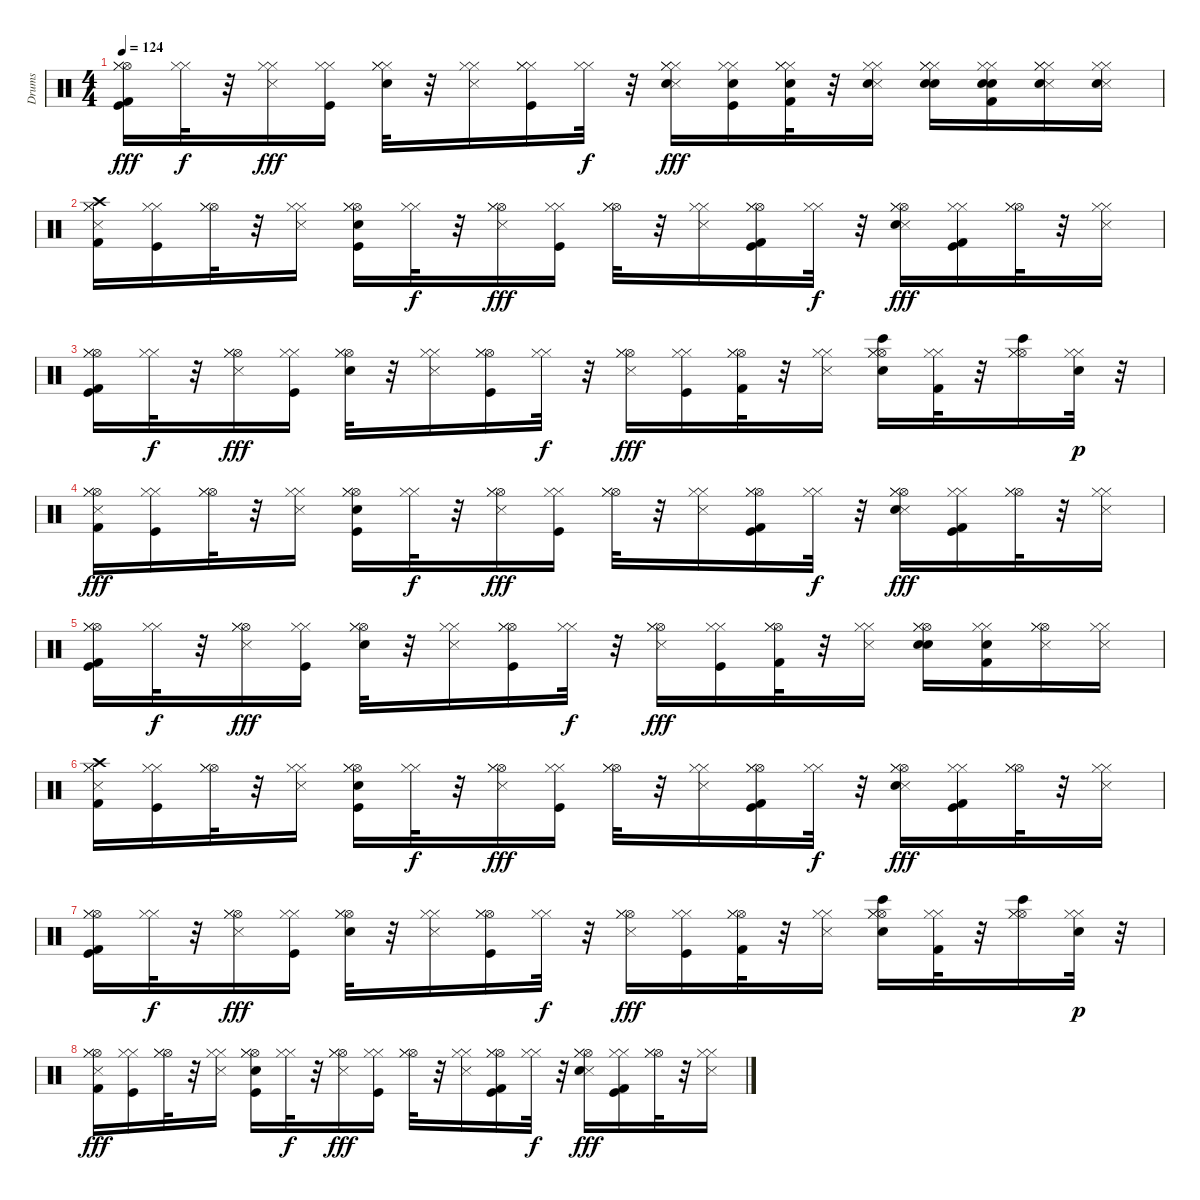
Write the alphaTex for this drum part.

\track ("Drums" "Drums") {instrument percussion}
\staff {score}
\articulation defaults
\ts (4 4)
\tempo 124
\clef neutral
\ks c
("Kick (hit)" "Kick (hit) 2" "Hi-Hat (open)" "Hi-Hat (closed)" "Hi-Hat (closed)").16{dy fff} ("Hi-Hat (closed)" "Hi-Hat (closed)").32{dy f} r.32 ("Metronome (hit)" "Hi-Hat (closed)" "Hi-Hat (closed)").16{dy fff} ("Kick (hit)" "Hi-Hat (closed)" "Hi-Hat (closed)").16 ("Hi-Hat (closed)" "Electric Snare (hit)" "Hi-Hat (closed)" "Hi-Hat (closed)").32 r.32 ("Metronome (hit)" "Hi-Hat (closed)" "Hi-Hat (closed)").16 ("Kick (hit)" "Hi-Hat (closed)" "Hi-Hat (closed)" "Hi-Hat (closed)").16 ("Hi-Hat (closed)" "Hi-Hat (closed)").32{dy f} r.32 ("Metronome (hit)" "Electric Snare (hit)" "Hi-Hat (closed)" "Hi-Hat (closed)" "Hi-Hat (closed)").16{dy fff} ("Kick (hit)" "Electric Snare (hit)" "Hi-Hat (closed)" "Hi-Hat (closed)").16 ("Electric Snare (hit)" "Kick (hit) 2" "Hi-Hat (closed)" "Hi-Hat (closed)" "Hi-Hat (closed)").32 r.32 ("Metronome (hit)" "Electric Snare (hit)" "Hi-Hat (closed)" "Hi-Hat (closed)").16 ("Hand Clap (hit)" "Hi-Hat (closed)" "Electric Snare (hit)" "Hi-Hat (closed)" "Hi-Hat (closed)").16 ("Hand Clap (hit)" "Electric Snare (hit)" "Kick (hit) 2" "Hi-Hat (closed)" "Hi-Hat (closed)").16 ("Snare (side stick) 3" "Electric Snare (hit)" "Hi-Hat (closed)" "Hi-Hat (closed)" "Hi-Hat (closed)").16 ("Snare (side stick) 3" "Electric Snare (hit)" "Hi-Hat (closed)" "Hi-Hat (closed)").16 |
("Metronome (hit)" "Crash high (hit)" "Kick (hit) 2" "Hi-Hat (closed)" "Hi-Hat (closed)").16 ("Kick (hit)" "Hi-Hat (closed)" "Hi-Hat (closed)").16 ("Hi-Hat (open)" "Hi-Hat (closed)" "Hi-Hat (closed)").32 r.32 ("Metronome (hit)" "Hi-Hat (closed)" "Hi-Hat (closed)").16 ("Kick (hit)" "Hi-Hat (open)" "Electric Snare (hit)" "Hi-Hat (closed)" "Hi-Hat (closed)").16 ("Hi-Hat (closed)" "Hi-Hat (closed)").32{dy f} r.32 ("Metronome (hit)" "Hi-Hat (open)" "Hi-Hat (closed)" "Hi-Hat (closed)").16{dy fff} ("Kick (hit)" "Hi-Hat (closed)" "Hi-Hat (closed)").16 ("Hi-Hat (open)" "Hi-Hat (closed)" "Hi-Hat (closed)").32 r.32 ("Metronome (hit)" "Hi-Hat (closed)" "Hi-Hat (closed)").16 ("Kick (hit)" "Hi-Hat (open)" "Kick (hit) 2" "Hi-Hat (closed)" "Hi-Hat (closed)").16 ("Hi-Hat (closed)" "Hi-Hat (closed)").32{dy f} r.32 ("Metronome (hit)" "Hi-Hat (open)" "Electric Snare (hit)" "Hi-Hat (closed)" "Hi-Hat (closed)").16{dy fff} ("Kick (hit)" "Kick (hit) 2" "Hi-Hat (closed)" "Hi-Hat (closed)").16 ("Hi-Hat (open)" "Hi-Hat (closed)" "Hi-Hat (closed)").32 r.32 ("Metronome (hit)" "Hi-Hat (closed)" "Hi-Hat (closed)").16 |
("Kick (hit)" "Hi-Hat (open)" "Kick (hit) 2" "Hi-Hat (closed)" "Hi-Hat (closed)").16 ("Hi-Hat (closed)" "Hi-Hat (closed)").32{dy f} r.32 ("Metronome (hit)" "Hi-Hat (open)" "Hi-Hat (closed)" "Hi-Hat (closed)").16{dy fff} ("Kick (hit)" "Hi-Hat (closed)" "Hi-Hat (closed)").16 ("Hi-Hat (open)" "Electric Snare (hit)" "Hi-Hat (closed)" "Hi-Hat (closed)").32 r.32 ("Metronome (hit)" "Hi-Hat (closed)" "Hi-Hat (closed)").16 ("Kick (hit)" "Hi-Hat (open)" "Hi-Hat (closed)" "Hi-Hat (closed)").16 ("Hi-Hat (closed)" "Hi-Hat (closed)").32{dy f} r.32 ("Metronome (hit)" "Hi-Hat (open)" "Hi-Hat (closed)" "Hi-Hat (closed)").16{dy fff} ("Kick (hit)" "Hi-Hat (closed)" "Hi-Hat (closed)").16 ("Hi-Hat (open)" "Kick (hit) 2" "Hi-Hat (closed)" "Hi-Hat (closed)").32 r.32 ("Metronome (hit)" "Hi-Hat (closed)" "Hi-Hat (closed)").16 ("Bongo High (hit)" "Hi-Hat (open)" "Electric Snare (hit)" "Hi-Hat (closed)" "Hi-Hat (closed)").16 ("Kick (hit) 2" "Hi-Hat (closed)" "Hi-Hat (closed)").32 r.32 ("Bongo High (hit)" "Hi-Hat (open)" "Hi-Hat (closed)" "Hi-Hat (closed)").16 ("Hi-Hat (closed)" "Hi-Hat (closed)" "Electric Snare (hit)").32{dy p} r.32 |
("Metronome (hit)" "Kick (hit) 2" "Hi-Hat (open)" "Hi-Hat (closed)" "Hi-Hat (closed)").16{dy fff} ("Kick (hit)" "Hi-Hat (closed)" "Hi-Hat (closed)").16 ("Hi-Hat (open)" "Hi-Hat (closed)" "Hi-Hat (closed)").32 r.32 ("Metronome (hit)" "Hi-Hat (closed)" "Hi-Hat (closed)").16 ("Kick (hit)" "Hi-Hat (open)" "Electric Snare (hit)" "Hi-Hat (closed)" "Hi-Hat (closed)").16 ("Hi-Hat (closed)" "Hi-Hat (closed)").32{dy f} r.32 ("Metronome (hit)" "Hi-Hat (open)" "Hi-Hat (closed)" "Hi-Hat (closed)").16{dy fff} ("Kick (hit)" "Hi-Hat (closed)" "Hi-Hat (closed)").16 ("Hi-Hat (open)" "Hi-Hat (closed)" "Hi-Hat (closed)").32 r.32 ("Metronome (hit)" "Hi-Hat (closed)" "Hi-Hat (closed)").16 ("Kick (hit)" "Hi-Hat (open)" "Kick (hit) 2" "Hi-Hat (closed)" "Hi-Hat (closed)").16 ("Hi-Hat (closed)" "Hi-Hat (closed)").32{dy f} r.32 ("Metronome (hit)" "Hi-Hat (open)" "Electric Snare (hit)" "Hi-Hat (closed)" "Hi-Hat (closed)").16{dy fff} ("Kick (hit)" "Kick (hit) 2" "Hi-Hat (closed)" "Hi-Hat (closed)").16 ("Hi-Hat (open)" "Hi-Hat (closed)" "Hi-Hat (closed)").32 r.32 ("Metronome (hit)" "Hi-Hat (closed)" "Hi-Hat (closed)").16 |
("Kick (hit)" "Kick (hit) 2" "Hi-Hat (open)" "Hi-Hat (closed)" "Hi-Hat (closed)").16 ("Hi-Hat (closed)" "Hi-Hat (closed)").32{dy f} r.32 ("Metronome (hit)" "Hi-Hat (open)" "Hi-Hat (closed)" "Hi-Hat (closed)").16{dy fff} ("Kick (hit)" "Hi-Hat (closed)" "Hi-Hat (closed)").16 ("Hi-Hat (open)" "Electric Snare (hit)" "Hi-Hat (closed)" "Hi-Hat (closed)").32 r.32 ("Metronome (hit)" "Hi-Hat (closed)" "Hi-Hat (closed)").16 ("Kick (hit)" "Hi-Hat (open)" "Hi-Hat (closed)" "Hi-Hat (closed)").16 ("Hi-Hat (closed)" "Hi-Hat (closed)").32{dy f} r.32 ("Metronome (hit)" "Hi-Hat (open)" "Hi-Hat (closed)" "Hi-Hat (closed)").16{dy fff} ("Kick (hit)" "Hi-Hat (closed)" "Hi-Hat (closed)").16 ("Hi-Hat (open)" "Kick (hit) 2" "Hi-Hat (closed)" "Hi-Hat (closed)").32 r.32 ("Metronome (hit)" "Hi-Hat (closed)" "Hi-Hat (closed)").16 ("Hand Clap (hit)" "Hi-Hat (open)" "Electric Snare (hit)" "Hi-Hat (closed)" "Hi-Hat (closed)").16 ("Hand Clap (hit)" "Kick (hit) 2" "Hi-Hat (closed)" "Hi-Hat (closed)").16 ("Snare (side stick) 3" "Hi-Hat (open)" "Hi-Hat (closed)" "Hi-Hat (closed)").16 ("Snare (side stick) 3" "Hi-Hat (closed)" "Hi-Hat (closed)").16 |
("Metronome (hit)" "Crash high (hit)" "Kick (hit) 2" "Hi-Hat (closed)" "Hi-Hat (closed)").16 ("Kick (hit)" "Hi-Hat (closed)" "Hi-Hat (closed)").16 ("Hi-Hat (open)" "Hi-Hat (closed)" "Hi-Hat (closed)").32 r.32 ("Metronome (hit)" "Hi-Hat (closed)" "Hi-Hat (closed)").16 ("Kick (hit)" "Hi-Hat (open)" "Electric Snare (hit)" "Hi-Hat (closed)" "Hi-Hat (closed)").16 ("Hi-Hat (closed)" "Hi-Hat (closed)").32{dy f} r.32 ("Metronome (hit)" "Hi-Hat (open)" "Hi-Hat (closed)" "Hi-Hat (closed)").16{dy fff} ("Kick (hit)" "Hi-Hat (closed)" "Hi-Hat (closed)").16 ("Hi-Hat (open)" "Hi-Hat (closed)" "Hi-Hat (closed)").32 r.32 ("Metronome (hit)" "Hi-Hat (closed)" "Hi-Hat (closed)").16 ("Kick (hit)" "Hi-Hat (open)" "Kick (hit) 2" "Hi-Hat (closed)" "Hi-Hat (closed)").16 ("Hi-Hat (closed)" "Hi-Hat (closed)").32{dy f} r.32 ("Metronome (hit)" "Hi-Hat (open)" "Electric Snare (hit)" "Hi-Hat (closed)" "Hi-Hat (closed)").16{dy fff} ("Kick (hit)" "Kick (hit) 2" "Hi-Hat (closed)" "Hi-Hat (closed)").16 ("Hi-Hat (open)" "Hi-Hat (closed)" "Hi-Hat (closed)").32 r.32 ("Metronome (hit)" "Hi-Hat (closed)" "Hi-Hat (closed)").16 |
("Kick (hit)" "Hi-Hat (open)" "Kick (hit) 2" "Hi-Hat (closed)" "Hi-Hat (closed)").16 ("Hi-Hat (closed)" "Hi-Hat (closed)").32{dy f} r.32 ("Metronome (hit)" "Hi-Hat (open)" "Hi-Hat (closed)" "Hi-Hat (closed)").16{dy fff} ("Kick (hit)" "Hi-Hat (closed)" "Hi-Hat (closed)").16 ("Hi-Hat (open)" "Electric Snare (hit)" "Hi-Hat (closed)" "Hi-Hat (closed)").32 r.32 ("Metronome (hit)" "Hi-Hat (closed)" "Hi-Hat (closed)").16 ("Kick (hit)" "Hi-Hat (open)" "Hi-Hat (closed)" "Hi-Hat (closed)").16 ("Hi-Hat (closed)" "Hi-Hat (closed)").32{dy f} r.32 ("Metronome (hit)" "Hi-Hat (open)" "Hi-Hat (closed)" "Hi-Hat (closed)").16{dy fff} ("Kick (hit)" "Hi-Hat (closed)" "Hi-Hat (closed)").16 ("Hi-Hat (open)" "Kick (hit) 2" "Hi-Hat (closed)" "Hi-Hat (closed)").32 r.32 ("Metronome (hit)" "Hi-Hat (closed)" "Hi-Hat (closed)").16 ("Bongo High (hit)" "Hi-Hat (open)" "Electric Snare (hit)" "Hi-Hat (closed)" "Hi-Hat (closed)").16 ("Kick (hit) 2" "Hi-Hat (closed)" "Hi-Hat (closed)").32 r.32 ("Bongo High (hit)" "Hi-Hat (open)" "Hi-Hat (closed)" "Hi-Hat (closed)").16 ("Hi-Hat (closed)" "Hi-Hat (closed)" "Electric Snare (hit)").32{dy p} r.32 |
("Metronome (hit)" "Kick (hit) 2" "Hi-Hat (open)" "Hi-Hat (closed)" "Hi-Hat (closed)").16{dy fff} ("Kick (hit)" "Hi-Hat (closed)" "Hi-Hat (closed)").16 ("Hi-Hat (open)" "Hi-Hat (closed)" "Hi-Hat (closed)").32 r.32 ("Metronome (hit)" "Hi-Hat (closed)" "Hi-Hat (closed)").16 ("Kick (hit)" "Hi-Hat (open)" "Electric Snare (hit)" "Hi-Hat (closed)" "Hi-Hat (closed)").16 ("Hi-Hat (closed)" "Hi-Hat (closed)").32{dy f} r.32 ("Metronome (hit)" "Hi-Hat (open)" "Hi-Hat (closed)" "Hi-Hat (closed)").16{dy fff} ("Kick (hit)" "Hi-Hat (closed)" "Hi-Hat (closed)").16 ("Hi-Hat (open)" "Hi-Hat (closed)" "Hi-Hat (closed)").32 r.32 ("Metronome (hit)" "Hi-Hat (closed)" "Hi-Hat (closed)").16 ("Kick (hit)" "Hi-Hat (open)" "Kick (hit) 2" "Hi-Hat (closed)" "Hi-Hat (closed)").16 ("Hi-Hat (closed)" "Hi-Hat (closed)").32{dy f} r.32 ("Metronome (hit)" "Hi-Hat (open)" "Electric Snare (hit)" "Hi-Hat (closed)" "Hi-Hat (closed)").16{dy fff} ("Kick (hit)" "Kick (hit) 2" "Hi-Hat (closed)" "Hi-Hat (closed)").16 ("Hi-Hat (open)" "Hi-Hat (closed)" "Hi-Hat (closed)").32 r.32 ("Metronome (hit)" "Hi-Hat (closed)" "Hi-Hat (closed)").16
